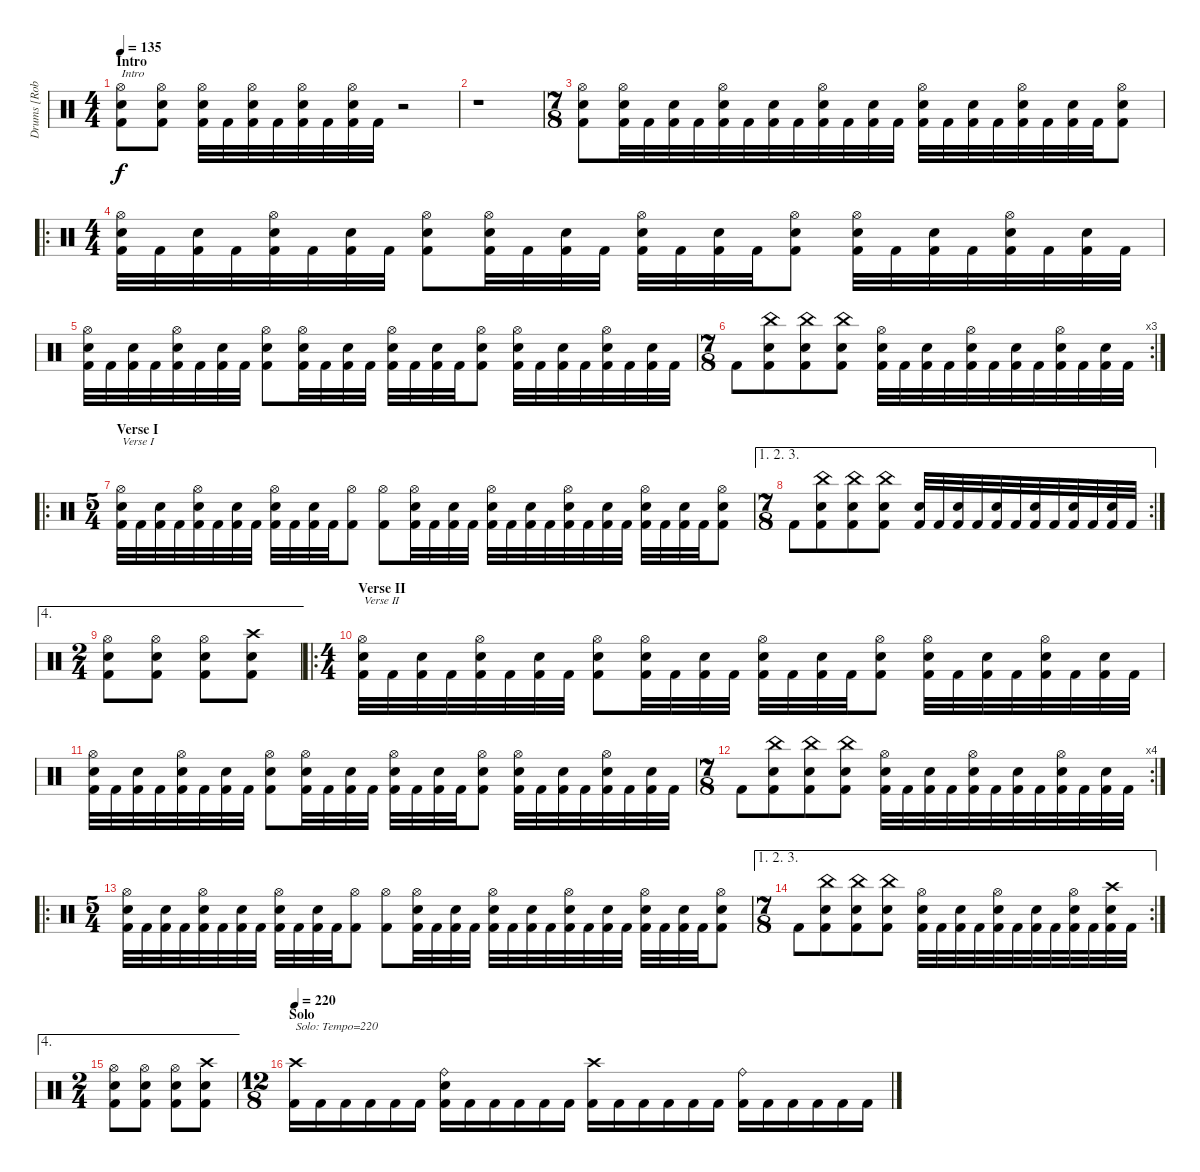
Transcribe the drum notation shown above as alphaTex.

\track ("Drums [Robert Patrick]" "Drums [Rob") {instrument percussion}
\staff {score}
\articulation defaults
\ts (4 4)
\section ("" "Intro")
\tempo 135
\clef neutral
\ks c
("Hi-Hat (open)" "Electric Snare (hit)" "Kick (hit) 2").8{txt "Intro" dy f} ("Hi-Hat (open)" "Electric Snare (hit)" "Kick (hit) 2").8 ("Hi-Hat (open)" "Electric Snare (hit)" "Kick (hit) 2").32 "Kick (hit) 2".32 ("Hi-Hat (open)" "Electric Snare (hit)" "Kick (hit) 2").32 "Kick (hit) 2".32 ("Hi-Hat (open)" "Electric Snare (hit)" "Kick (hit) 2").32 "Kick (hit) 2".32 ("Hi-Hat (open)" "Electric Snare (hit)" "Kick (hit) 2").32 "Kick (hit) 2".32 r.2 |
r.1 |
\ts (7 8)
("Hi-Hat (open)" "Electric Snare (hit)" "Kick (hit) 2").8 ("Hi-Hat (open)" "Electric Snare (hit)" "Kick (hit) 2").32 "Kick (hit) 2".32 ("Electric Snare (hit)" "Kick (hit) 2").32 "Kick (hit) 2".32 ("Hi-Hat (open)" "Electric Snare (hit)" "Kick (hit) 2").32 "Kick (hit) 2".32 ("Electric Snare (hit)" "Kick (hit) 2").32 "Kick (hit) 2".32 ("Hi-Hat (open)" "Electric Snare (hit)" "Kick (hit) 2").32 "Kick (hit) 2".32 ("Electric Snare (hit)" "Kick (hit) 2").32 "Kick (hit) 2".32 ("Hi-Hat (open)" "Electric Snare (hit)" "Kick (hit) 2").32 "Kick (hit) 2".32 ("Electric Snare (hit)" "Kick (hit) 2").32 "Kick (hit) 2".32 ("Hi-Hat (open)" "Electric Snare (hit)" "Kick (hit) 2").32 "Kick (hit) 2".32 ("Electric Snare (hit)" "Kick (hit) 2").32 "Kick (hit) 2".32 ("Hi-Hat (open)" "Electric Snare (hit)" "Kick (hit) 2").8 |
\ro
\ts (4 4)
("Hi-Hat (open)" "Electric Snare (hit)" "Kick (hit) 2").32 "Kick (hit) 2".32 ("Electric Snare (hit)" "Kick (hit) 2").32 "Kick (hit) 2".32 ("Hi-Hat (open)" "Electric Snare (hit)" "Kick (hit) 2").32 "Kick (hit) 2".32 ("Electric Snare (hit)" "Kick (hit) 2").32 "Kick (hit) 2".32 ("Hi-Hat (open)" "Electric Snare (hit)" "Kick (hit) 2").8 ("Hi-Hat (open)" "Electric Snare (hit)" "Kick (hit) 2").32 "Kick (hit) 2".32 ("Electric Snare (hit)" "Kick (hit) 2").32 "Kick (hit) 2".32 ("Hi-Hat (open)" "Electric Snare (hit)" "Kick (hit) 2").32 "Kick (hit) 2".32 ("Electric Snare (hit)" "Kick (hit) 2").32 "Kick (hit) 2".32 ("Hi-Hat (open)" "Electric Snare (hit)" "Kick (hit) 2").8 ("Hi-Hat (open)" "Electric Snare (hit)" "Kick (hit) 2").32 "Kick (hit) 2".32 ("Electric Snare (hit)" "Kick (hit) 2").32 "Kick (hit) 2".32 ("Hi-Hat (open)" "Electric Snare (hit)" "Kick (hit) 2").32 "Kick (hit) 2".32 ("Electric Snare (hit)" "Kick (hit) 2").32 "Kick (hit) 2".32 |
("Hi-Hat (open)" "Electric Snare (hit)" "Kick (hit) 2").32 "Kick (hit) 2".32 ("Electric Snare (hit)" "Kick (hit) 2").32 "Kick (hit) 2".32 ("Hi-Hat (open)" "Electric Snare (hit)" "Kick (hit) 2").32 "Kick (hit) 2".32 ("Electric Snare (hit)" "Kick (hit) 2").32 "Kick (hit) 2".32 ("Hi-Hat (open)" "Electric Snare (hit)" "Kick (hit) 2").8 ("Hi-Hat (open)" "Electric Snare (hit)" "Kick (hit) 2").32 "Kick (hit) 2".32 ("Electric Snare (hit)" "Kick (hit) 2").32 "Kick (hit) 2".32 ("Hi-Hat (open)" "Electric Snare (hit)" "Kick (hit) 2").32 "Kick (hit) 2".32 ("Electric Snare (hit)" "Kick (hit) 2").32 "Kick (hit) 2".32 ("Hi-Hat (open)" "Electric Snare (hit)" "Kick (hit) 2").8 ("Hi-Hat (open)" "Electric Snare (hit)" "Kick (hit) 2").32 "Kick (hit) 2".32 ("Electric Snare (hit)" "Kick (hit) 2").32 "Kick (hit) 2".32 ("Hi-Hat (open)" "Electric Snare (hit)" "Kick (hit) 2").32 "Kick (hit) 2".32 ("Electric Snare (hit)" "Kick (hit) 2").32 "Kick (hit) 2".32 |
\rc 3
\ts (7 8)
"Kick (hit) 2".8 ("China (hit)" "Electric Snare (hit)" "Kick (hit) 2").8 ("China (hit)" "Electric Snare (hit)" "Kick (hit) 2").8 ("China (hit)" "Electric Snare (hit)" "Kick (hit) 2").8 ("Hi-Hat (open)" "Electric Snare (hit)" "Kick (hit) 2").32 "Kick (hit) 2".32 ("Electric Snare (hit)" "Kick (hit) 2").32 "Kick (hit) 2".32 ("Hi-Hat (open)" "Electric Snare (hit)" "Kick (hit) 2").32 "Kick (hit) 2".32 ("Electric Snare (hit)" "Kick (hit) 2").32 "Kick (hit) 2".32 ("Hi-Hat (open)" "Electric Snare (hit)" "Kick (hit) 2").32 "Kick (hit) 2".32 ("Electric Snare (hit)" "Kick (hit) 2").32 "Kick (hit) 2".32 |
\ro
\ts (5 4)
\section ("" "Verse I")
("Hi-Hat (open)" "Electric Snare (hit)" "Kick (hit) 2").32{txt "Verse I"} "Kick (hit) 2".32 ("Electric Snare (hit)" "Kick (hit) 2").32 "Kick (hit) 2".32 ("Hi-Hat (open)" "Electric Snare (hit)" "Kick (hit) 2").32 "Kick (hit) 2".32 ("Electric Snare (hit)" "Kick (hit) 2").32 "Kick (hit) 2".32 ("Hi-Hat (open)" "Electric Snare (hit)" "Kick (hit) 2").32 "Kick (hit) 2".32 ("Electric Snare (hit)" "Kick (hit) 2").32 "Kick (hit) 2".32 ("Hi-Hat (open)" "Kick (hit) 2").8 ("Hi-Hat (open)" "Kick (hit) 2").8 ("Hi-Hat (open)" "Electric Snare (hit)" "Kick (hit) 2").32 "Kick (hit) 2".32 ("Electric Snare (hit)" "Kick (hit) 2").32 "Kick (hit) 2".32 ("Hi-Hat (open)" "Electric Snare (hit)" "Kick (hit) 2").32 "Kick (hit) 2".32 ("Electric Snare (hit)" "Kick (hit) 2").32 "Kick (hit) 2".32 ("Hi-Hat (open)" "Electric Snare (hit)" "Kick (hit) 2").32 "Kick (hit) 2".32 ("Electric Snare (hit)" "Kick (hit) 2").32 "Kick (hit) 2".32 ("Hi-Hat (open)" "Electric Snare (hit)" "Kick (hit) 2").32 "Kick (hit) 2".32 ("Electric Snare (hit)" "Kick (hit) 2").32 "Kick (hit) 2".32 ("Hi-Hat (open)" "Electric Snare (hit)" "Kick (hit) 2").8 |
\ae (1 2 3)
\rc 2
\ts (7 8)
"Kick (hit) 2".8 ("China (hit)" "Electric Snare (hit)" "Kick (hit) 2").8 ("China (hit)" "Electric Snare (hit)" "Kick (hit) 2").8 ("China (hit)" "Electric Snare (hit)" "Kick (hit) 2").8 ("Electric Snare (hit)" "Kick (hit) 2").32 "Kick (hit) 2".32 ("Electric Snare (hit)" "Kick (hit) 2").32 "Kick (hit) 2".32 ("Electric Snare (hit)" "Kick (hit) 2").32 "Kick (hit) 2".32 ("Electric Snare (hit)" "Kick (hit) 2").32 "Kick (hit) 2".32 ("Electric Snare (hit)" "Kick (hit) 2").32 "Kick (hit) 2".32 ("Electric Snare (hit)" "Kick (hit) 2").32 "Kick (hit) 2".32 |
\ae 4
\ts (2 4)
("Hi-Hat (open)" "Electric Snare (hit)" "Kick (hit) 2").8 ("Hi-Hat (open)" "Electric Snare (hit)" "Kick (hit) 2").8 ("Hi-Hat (open)" "Electric Snare (hit)" "Kick (hit) 2").8 ("Crash high (hit)" "Electric Snare (hit)" "Kick (hit) 2").8 |
\ro
\ts (4 4)
\section ("" "Verse II")
("Hi-Hat (open)" "Electric Snare (hit)" "Kick (hit) 2").32{txt "Verse II"} "Kick (hit) 2".32 ("Electric Snare (hit)" "Kick (hit) 2").32 "Kick (hit) 2".32 ("Hi-Hat (open)" "Electric Snare (hit)" "Kick (hit) 2").32 "Kick (hit) 2".32 ("Electric Snare (hit)" "Kick (hit) 2").32 "Kick (hit) 2".32 ("Hi-Hat (open)" "Electric Snare (hit)" "Kick (hit) 2").8 ("Hi-Hat (open)" "Electric Snare (hit)" "Kick (hit) 2").32 "Kick (hit) 2".32 ("Electric Snare (hit)" "Kick (hit) 2").32 "Kick (hit) 2".32 ("Hi-Hat (open)" "Electric Snare (hit)" "Kick (hit) 2").32 "Kick (hit) 2".32 ("Electric Snare (hit)" "Kick (hit) 2").32 "Kick (hit) 2".32 ("Hi-Hat (open)" "Electric Snare (hit)" "Kick (hit) 2").8 ("Hi-Hat (open)" "Electric Snare (hit)" "Kick (hit) 2").32 "Kick (hit) 2".32 ("Electric Snare (hit)" "Kick (hit) 2").32 "Kick (hit) 2".32 ("Hi-Hat (open)" "Electric Snare (hit)" "Kick (hit) 2").32 "Kick (hit) 2".32 ("Electric Snare (hit)" "Kick (hit) 2").32 "Kick (hit) 2".32 |
("Hi-Hat (open)" "Electric Snare (hit)" "Kick (hit) 2").32 "Kick (hit) 2".32 ("Electric Snare (hit)" "Kick (hit) 2").32 "Kick (hit) 2".32 ("Hi-Hat (open)" "Electric Snare (hit)" "Kick (hit) 2").32 "Kick (hit) 2".32 ("Electric Snare (hit)" "Kick (hit) 2").32 "Kick (hit) 2".32 ("Hi-Hat (open)" "Electric Snare (hit)" "Kick (hit) 2").8 ("Hi-Hat (open)" "Electric Snare (hit)" "Kick (hit) 2").32 "Kick (hit) 2".32 ("Electric Snare (hit)" "Kick (hit) 2").32 "Kick (hit) 2".32 ("Hi-Hat (open)" "Electric Snare (hit)" "Kick (hit) 2").32 "Kick (hit) 2".32 ("Electric Snare (hit)" "Kick (hit) 2").32 "Kick (hit) 2".32 ("Hi-Hat (open)" "Electric Snare (hit)" "Kick (hit) 2").8 ("Hi-Hat (open)" "Electric Snare (hit)" "Kick (hit) 2").32 "Kick (hit) 2".32 ("Electric Snare (hit)" "Kick (hit) 2").32 "Kick (hit) 2".32 ("Hi-Hat (open)" "Electric Snare (hit)" "Kick (hit) 2").32 "Kick (hit) 2".32 ("Electric Snare (hit)" "Kick (hit) 2").32 "Kick (hit) 2".32 |
\rc 4
\ts (7 8)
"Kick (hit) 2".8 ("China (hit)" "Electric Snare (hit)" "Kick (hit) 2").8 ("China (hit)" "Electric Snare (hit)" "Kick (hit) 2").8 ("China (hit)" "Electric Snare (hit)" "Kick (hit) 2").8 ("Hi-Hat (open)" "Electric Snare (hit)" "Kick (hit) 2").32 "Kick (hit) 2".32 ("Electric Snare (hit)" "Kick (hit) 2").32 "Kick (hit) 2".32 ("Hi-Hat (open)" "Electric Snare (hit)" "Kick (hit) 2").32 "Kick (hit) 2".32 ("Electric Snare (hit)" "Kick (hit) 2").32 "Kick (hit) 2".32 ("Hi-Hat (open)" "Electric Snare (hit)" "Kick (hit) 2").32 "Kick (hit) 2".32 ("Electric Snare (hit)" "Kick (hit) 2").32 "Kick (hit) 2".32 |
\ro
\ts (5 4)
("Hi-Hat (open)" "Electric Snare (hit)" "Kick (hit) 2").32 "Kick (hit) 2".32 ("Electric Snare (hit)" "Kick (hit) 2").32 "Kick (hit) 2".32 ("Hi-Hat (open)" "Electric Snare (hit)" "Kick (hit) 2").32 "Kick (hit) 2".32 ("Electric Snare (hit)" "Kick (hit) 2").32 "Kick (hit) 2".32 ("Hi-Hat (open)" "Electric Snare (hit)" "Kick (hit) 2").32 "Kick (hit) 2".32 ("Electric Snare (hit)" "Kick (hit) 2").32 "Kick (hit) 2".32 ("Hi-Hat (open)" "Kick (hit) 2").8 ("Hi-Hat (open)" "Kick (hit) 2").8 ("Hi-Hat (open)" "Electric Snare (hit)" "Kick (hit) 2").32 "Kick (hit) 2".32 ("Electric Snare (hit)" "Kick (hit) 2").32 "Kick (hit) 2".32 ("Hi-Hat (open)" "Electric Snare (hit)" "Kick (hit) 2").32 "Kick (hit) 2".32 ("Electric Snare (hit)" "Kick (hit) 2").32 "Kick (hit) 2".32 ("Hi-Hat (open)" "Electric Snare (hit)" "Kick (hit) 2").32 "Kick (hit) 2".32 ("Electric Snare (hit)" "Kick (hit) 2").32 "Kick (hit) 2".32 ("Hi-Hat (open)" "Electric Snare (hit)" "Kick (hit) 2").32 "Kick (hit) 2".32 ("Electric Snare (hit)" "Kick (hit) 2").32 "Kick (hit) 2".32 ("Hi-Hat (open)" "Electric Snare (hit)" "Kick (hit) 2").8 |
\ae (1 2 3)
\rc 2
\ts (7 8)
"Kick (hit) 2".8 ("China (hit)" "Electric Snare (hit)" "Kick (hit) 2").8 ("China (hit)" "Electric Snare (hit)" "Kick (hit) 2").8 ("China (hit)" "Electric Snare (hit)" "Kick (hit) 2").8 ("Hi-Hat (open)" "Electric Snare (hit)" "Kick (hit) 2").32 "Kick (hit) 2".32 ("Electric Snare (hit)" "Kick (hit) 2").32 "Kick (hit) 2".32 ("Hi-Hat (open)" "Electric Snare (hit)" "Kick (hit) 2").32 "Kick (hit) 2".32 ("Electric Snare (hit)" "Kick (hit) 2").32 "Kick (hit) 2".32 ("Hi-Hat (open)" "Electric Snare (hit)" "Kick (hit) 2").32 "Kick (hit) 2".32 ("Crash high (hit)" "Electric Snare (hit)" "Kick (hit) 2").32 "Kick (hit) 2".32 |
\ae 4
\ts (2 4)
("Hi-Hat (open)" "Electric Snare (hit)" "Kick (hit) 2").8 ("Hi-Hat (open)" "Electric Snare (hit)" "Kick (hit) 2").8 ("Hi-Hat (open)" "Electric Snare (hit)" "Kick (hit) 2").8 ("Crash high (hit)" "Electric Snare (hit)" "Kick (hit) 2").8 |
\ts (12 8)
\section ("" "Solo")
\tempo 220
("Crash high (hit)" "Kick (hit) 2").16{txt "Solo: Tempo=220"} "Kick (hit) 2".16 "Kick (hit) 2".16 "Kick (hit) 2".16 "Kick (hit) 2".16 "Kick (hit) 2".16 ("Ride (bell)" "Electric Snare (hit)" "Kick (hit) 2").16 "Kick (hit) 2".16 "Kick (hit) 2".16 "Kick (hit) 2".16 "Kick (hit) 2".16 "Kick (hit) 2".16 ("Crash high (hit)" "Kick (hit) 2").16 "Kick (hit) 2".16 "Kick (hit) 2".16 "Kick (hit) 2".16 "Kick (hit) 2".16 "Kick (hit) 2".16 ("Ride (bell)" "Kick (hit) 2").16 "Kick (hit) 2".16 "Kick (hit) 2".16 "Kick (hit) 2".16 "Kick (hit) 2".16 "Kick (hit) 2".16
